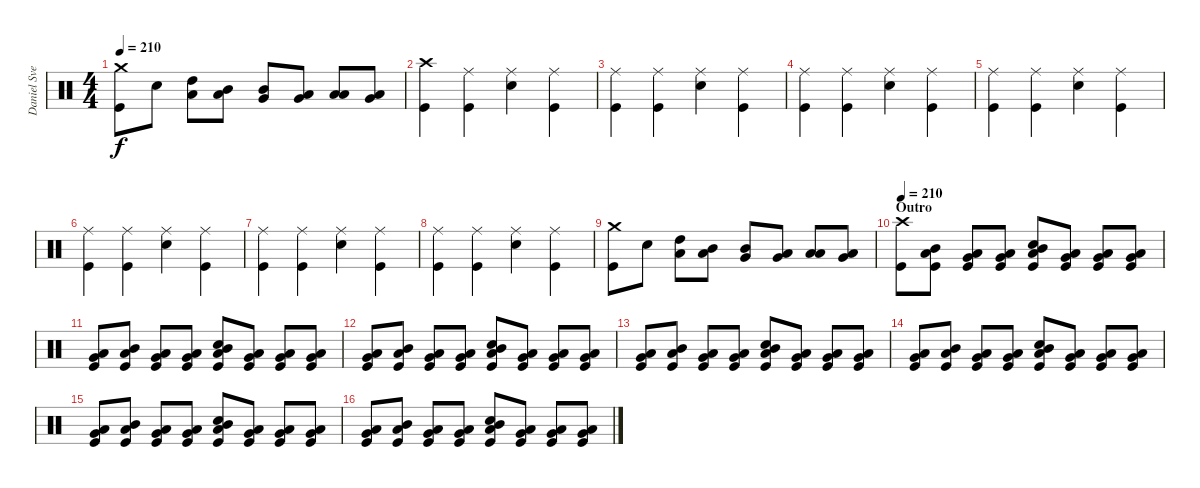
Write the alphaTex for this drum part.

\track ("Daniel Svensson" "Daniel Sve") {instrument percussion}
\staff {score}
\articulation defaults
\ts (4 4)
\tempo 210
\clef neutral
\ks c
("Crash medium (hit)" "Kick (hit)").8{dy f} "Electric Snare (hit)".8 ("Low Tom (hit)" "High Tom (hit)").8 ("Low Tom (hit)" "Mid Tom (hit)").8 ("Very Low Tom (hit)" "Mid Tom (hit)").8 ("Very Low Tom (hit)" "Low Tom (hit)").8 ("Low Floor Tom (hit)" "Low Tom (hit)").8 ("Low Floor Tom (hit)" "Very Low Tom (hit)").8 |
("Crash high (hit)" "Kick (hit)").4 ("Ride (middle)" "Kick (hit)").4 ("Ride (middle)" "Electric Snare (hit)").4 ("Ride (middle)" "Kick (hit)").4 |
("Ride (middle)" "Kick (hit)").4 ("Ride (middle)" "Kick (hit)").4 ("Ride (middle)" "Electric Snare (hit)").4 ("Ride (middle)" "Kick (hit)").4 |
("Ride (middle)" "Kick (hit)").4 ("Ride (middle)" "Kick (hit)").4 ("Ride (middle)" "Electric Snare (hit)").4 ("Ride (middle)" "Kick (hit)").4 |
("Ride (middle)" "Kick (hit)").4 ("Ride (middle)" "Kick (hit)").4 ("Ride (middle)" "Electric Snare (hit)").4 ("Ride (middle)" "Kick (hit)").4 |
("Ride (middle)" "Kick (hit)").4 ("Ride (middle)" "Kick (hit)").4 ("Ride (middle)" "Electric Snare (hit)").4 ("Ride (middle)" "Kick (hit)").4 |
("Ride (middle)" "Kick (hit)").4 ("Ride (middle)" "Kick (hit)").4 ("Ride (middle)" "Electric Snare (hit)").4 ("Ride (middle)" "Kick (hit)").4 |
("Ride (middle)" "Kick (hit)").4 ("Ride (middle)" "Kick (hit)").4 ("Ride (middle)" "Electric Snare (hit)").4 ("Ride (middle)" "Kick (hit)").4 |
("Crash medium (hit)" "Kick (hit)").8 "Electric Snare (hit)".8 ("Low Tom (hit)" "High Tom (hit)").8 ("Low Tom (hit)" "Mid Tom (hit)").8 ("Very Low Tom (hit)" "Mid Tom (hit)").8 ("Very Low Tom (hit)" "Low Tom (hit)").8 ("Low Floor Tom (hit)" "Low Tom (hit)").8 ("Low Floor Tom (hit)" "Very Low Tom (hit)").8 |
\section ("" "Outro")
\tempo 210
("Crash high (hit)" "Kick (hit)").8 ("Low Tom (hit)" "Mid Tom (hit)" "Kick (hit)").8 ("Very Low Tom (hit)" "Low Tom (hit)" "Kick (hit)").8 ("Low Floor Tom (hit)" "Very Low Tom (hit)" "Kick (hit)").8 ("Low Tom (hit)" "Mid Tom (hit)" "Electric Snare (hit)" "Kick (hit)").8 ("Very Low Tom (hit)" "Low Tom (hit)" "Kick (hit)").8 ("Low Floor Tom (hit)" "Very Low Tom (hit)" "Kick (hit)").8 ("Very Low Tom (hit)" "Low Tom (hit)" "Kick (hit)").8 |
("Very Low Tom (hit)" "Low Tom (hit)" "Kick (hit)").8 ("Low Tom (hit)" "Mid Tom (hit)" "Kick (hit)").8 ("Very Low Tom (hit)" "Low Tom (hit)" "Kick (hit)").8 ("Low Floor Tom (hit)" "Very Low Tom (hit)" "Kick (hit)").8 ("Low Tom (hit)" "Mid Tom (hit)" "Electric Snare (hit)" "Kick (hit)").8 ("Very Low Tom (hit)" "Low Tom (hit)" "Kick (hit)").8 ("Low Floor Tom (hit)" "Very Low Tom (hit)" "Kick (hit)").8 ("Very Low Tom (hit)" "Low Tom (hit)" "Kick (hit)").8 |
("Very Low Tom (hit)" "Low Tom (hit)" "Kick (hit)").8 ("Low Tom (hit)" "Mid Tom (hit)" "Kick (hit)").8 ("Very Low Tom (hit)" "Low Tom (hit)" "Kick (hit)").8 ("Low Floor Tom (hit)" "Very Low Tom (hit)" "Kick (hit)").8 ("Low Tom (hit)" "Mid Tom (hit)" "Electric Snare (hit)" "Kick (hit)").8 ("Very Low Tom (hit)" "Low Tom (hit)" "Kick (hit)").8 ("Low Floor Tom (hit)" "Very Low Tom (hit)" "Kick (hit)").8 ("Very Low Tom (hit)" "Low Tom (hit)" "Kick (hit)").8 |
("Very Low Tom (hit)" "Low Tom (hit)" "Kick (hit)").8 ("Low Tom (hit)" "Mid Tom (hit)" "Kick (hit)").8 ("Very Low Tom (hit)" "Low Tom (hit)" "Kick (hit)").8 ("Low Floor Tom (hit)" "Very Low Tom (hit)" "Kick (hit)").8 ("Low Tom (hit)" "Mid Tom (hit)" "Electric Snare (hit)" "Kick (hit)").8 ("Very Low Tom (hit)" "Low Tom (hit)" "Kick (hit)").8 ("Low Floor Tom (hit)" "Very Low Tom (hit)" "Kick (hit)").8 ("Very Low Tom (hit)" "Low Tom (hit)" "Kick (hit)").8 |
("Very Low Tom (hit)" "Low Tom (hit)" "Kick (hit)").8 ("Low Tom (hit)" "Mid Tom (hit)" "Kick (hit)").8 ("Very Low Tom (hit)" "Low Tom (hit)" "Kick (hit)").8 ("Low Floor Tom (hit)" "Very Low Tom (hit)" "Kick (hit)").8 ("Low Tom (hit)" "Mid Tom (hit)" "Electric Snare (hit)" "Kick (hit)").8 ("Very Low Tom (hit)" "Low Tom (hit)" "Kick (hit)").8 ("Low Floor Tom (hit)" "Very Low Tom (hit)" "Kick (hit)").8 ("Very Low Tom (hit)" "Low Tom (hit)" "Kick (hit)").8 |
("Very Low Tom (hit)" "Low Tom (hit)" "Kick (hit)").8 ("Low Tom (hit)" "Mid Tom (hit)" "Kick (hit)").8 ("Very Low Tom (hit)" "Low Tom (hit)" "Kick (hit)").8 ("Low Floor Tom (hit)" "Very Low Tom (hit)" "Kick (hit)").8 ("Low Tom (hit)" "Mid Tom (hit)" "Electric Snare (hit)" "Kick (hit)").8 ("Very Low Tom (hit)" "Low Tom (hit)" "Kick (hit)").8 ("Low Floor Tom (hit)" "Very Low Tom (hit)" "Kick (hit)").8 ("Very Low Tom (hit)" "Low Tom (hit)" "Kick (hit)").8 |
("Very Low Tom (hit)" "Low Tom (hit)" "Kick (hit)").8 ("Low Tom (hit)" "Mid Tom (hit)" "Kick (hit)").8 ("Very Low Tom (hit)" "Low Tom (hit)" "Kick (hit)").8 ("Low Floor Tom (hit)" "Very Low Tom (hit)" "Kick (hit)").8 ("Low Tom (hit)" "Mid Tom (hit)" "Electric Snare (hit)" "Kick (hit)").8 ("Very Low Tom (hit)" "Low Tom (hit)" "Kick (hit)").8 ("Low Floor Tom (hit)" "Very Low Tom (hit)" "Kick (hit)").8 ("Very Low Tom (hit)" "Low Tom (hit)" "Kick (hit)").8
